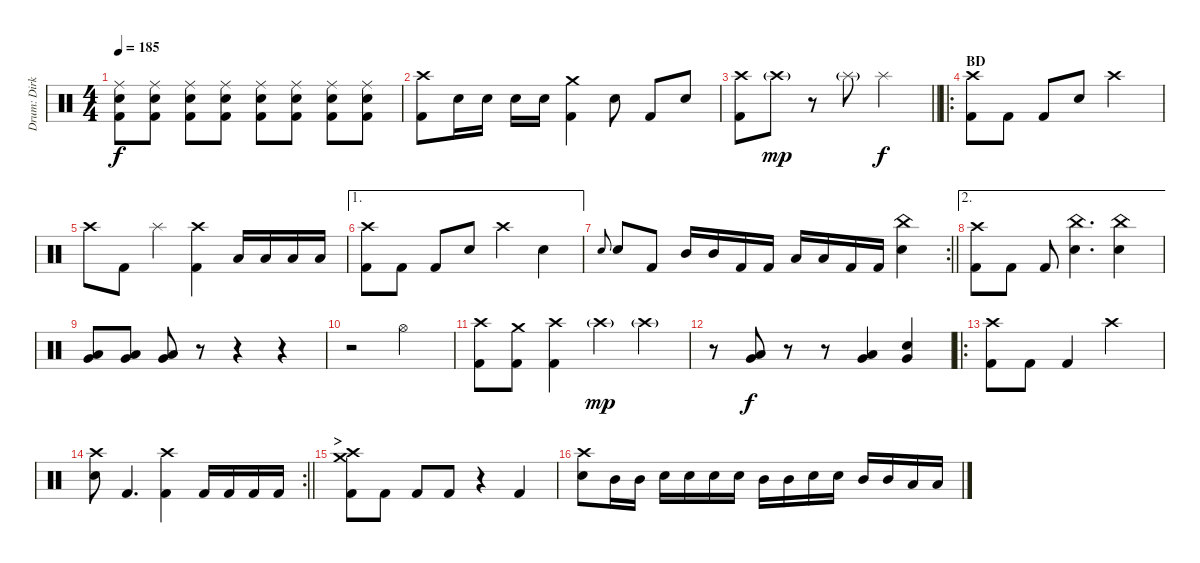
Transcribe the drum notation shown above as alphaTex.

\track ("Drum: Dirk" "Drum: Dirk") {instrument percussion}
\staff {score}
\articulation defaults
\ts (4 4)
\tempo 185
\clef neutral
\ks c
("Ride (middle)" "Electric Snare (hit)" "Kick (hit) 2").8{dy f} ("Ride (middle)" "Electric Snare (hit)" "Kick (hit) 2").8 ("Ride (middle)" "Electric Snare (hit)" "Kick (hit) 2").8 ("Ride (middle)" "Electric Snare (hit)" "Kick (hit) 2").8 ("Ride (middle)" "Electric Snare (hit)" "Kick (hit) 2").8 ("Ride (middle)" "Electric Snare (hit)" "Kick (hit) 2").8 ("Ride (middle)" "Electric Snare (hit)" "Kick (hit) 2").8 ("Ride (middle)" "Electric Snare (hit)" "Kick (hit) 2").8 |
("Crash high (hit)" "Kick (hit) 2").8 "Electric Snare (hit)".16 "Electric Snare (hit)".16 "Electric Snare (hit)".16 "Electric Snare (hit)".16 ("Crash medium (hit)" "Kick (hit) 2").4 "Electric Snare (hit)".8 "Kick (hit) 2".8 "Electric Snare (hit)".8 |
\barLineRight lightlight
("Crash high (hit)" "Kick (hit) 2").8 "Crash high (hit)"{g}.8{dy mp} r.8 "Splash (hit)"{g}.8 "Splash (hit)".2{dy f} |
\ro
\section ("" "BD")
("Crash high (hit)" "Kick (hit) 2").8 "Kick (hit) 2".8 "Kick (hit) 2".8 "Electric Snare (hit)".8 "Crash high (hit)".2 |
"Crash high (hit)".8 "Kick (hit) 2".8 "Splash (hit)".4 ("Crash high (hit)" "Kick (hit) 2").4 "Low Tom (hit)".16 "Low Tom (hit)".16 "Low Tom (hit)".16 "Low Tom (hit)".16 |
\ae 1
("Crash high (hit)" "Kick (hit) 2").8 "Kick (hit) 2".8 "Kick (hit) 2".8 "Electric Snare (hit)".8 "Crash high (hit)".4 "Electric Snare (hit)".4 |
\rc 2
\barLineRight lightlight "Electric Snare (hit)".8{gr onbeat} "Electric Snare (hit)".8 "Kick (hit) 2".8 "Mid Tom (hit)".16 "Mid Tom (hit)".16 "Kick (hit) 2".16 "Kick (hit) 2".16 "Low Tom (hit)".16 "Low Tom (hit)".16 "Kick (hit) 2".16 "Kick (hit) 2".16
("China (hit)" "Electric Snare (hit)").4 |
\ae 2
("Crash high (hit)" "Kick (hit) 2").8 "Kick (hit) 2".8 "Kick (hit) 2".8 ("China (hit)" "Electric Snare (hit)").4{d} ("China (hit)" "Electric Snare (hit)").4 |
("Low Tom (hit)" "Very Low Tom (hit)").8 ("Low Tom (hit)" "Very Low Tom (hit)").8 ("Low Tom (hit)" "Very Low Tom (hit)").8 r.8 r.4 r.4 |
r.2 "Hi-Hat (open)".2 |
("Crash high (hit)" "Kick (hit) 2").8 ("Crash medium (hit)" "Kick (hit) 2").8 ("Crash high (hit)" "Kick (hit) 2").4 "Crash high (hit)"{g}.4{dy mp} "Crash high (hit)"{g}.4 |
r.8 ("Low Tom (hit)" "Very Low Tom (hit)").8{dy f} r.8 r.8 ("Low Tom (hit)" "Very Low Tom (hit)").4 ("Electric Snare (hit)" "Very Low Tom (hit)").4 |
\ro
("Crash high (hit)" "Kick (hit) 2").8 "Kick (hit) 2".8 "Kick (hit) 2".4 "Crash high (hit)".2 |
\rc 2
\barLineRight lightlight
("Crash high (hit)" "Electric Snare (hit)").8 "Kick (hit) 2".4{d} ("Crash high (hit)" "Kick (hit) 2").4 "Kick (hit) 2".16 "Kick (hit) 2".16 "Kick (hit) 2".16 "Kick (hit) 2".16 |
\section ("" ">")
("Crash high (hit)" "Crash medium (hit)" "Kick (hit) 2").8 "Kick (hit) 2".8 "Kick (hit) 2".8 "Kick (hit) 2".8 r.4 "Kick (hit) 2".4 |
("Crash high (hit)" "Electric Snare (hit)").8 "Mid Tom (hit)".16 "Mid Tom (hit)".16 "Electric Snare (hit)".16 "Electric Snare (hit)".16 "Electric Snare (hit)".16 "Electric Snare (hit)".16 "Mid Tom (hit)".16 "Mid Tom (hit)".16 "Electric Snare (hit)".16 "Electric Snare (hit)".16 "Mid Tom (hit)".16 "Mid Tom (hit)".16 "Low Tom (hit)".16 "Low Tom (hit)".16
